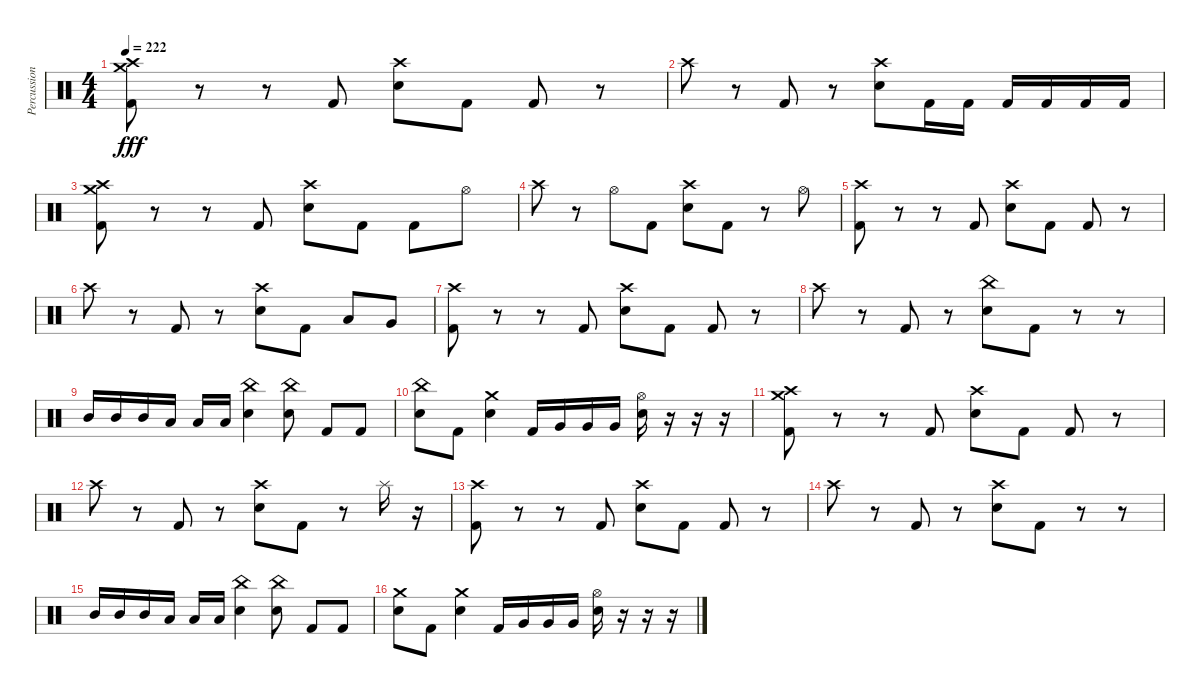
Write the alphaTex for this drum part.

\track ("Percussion" "Percussion") {instrument percussion}
\staff {score}
\articulation defaults
\ts (4 4)
\tempo 222
\clef neutral
\ks c
("Kick (hit) 2" "Crash medium (hit)" "Crash high (hit)").8{dy fff} r.8 r.8 "Kick (hit) 2".8 ("Electric Snare (hit)" "Crash high (hit)").8 "Kick (hit) 2".8 "Kick (hit) 2".8 r.8 |
"Crash high (hit)".8 r.8 "Kick (hit) 2".8 r.8 ("Electric Snare (hit)" "Crash high (hit)").8 "Kick (hit) 2".16 "Kick (hit) 2".16 "Kick (hit) 2".16 "Kick (hit) 2".16 "Kick (hit) 2".16 "Kick (hit) 2".16 |
("Kick (hit) 2" "Crash medium (hit)" "Crash high (hit)").8 r.8 r.8 "Kick (hit) 2".8 ("Electric Snare (hit)" "Crash high (hit)").8 "Kick (hit) 2".8 "Kick (hit) 2".8 "Hi-Hat (open)".8 |
"Crash high (hit)".8 r.8 "Hi-Hat (open)".8 "Kick (hit) 2".8 ("Electric Snare (hit)" "Crash high (hit)").8 "Kick (hit) 2".8 r.8 "Hi-Hat (open)".8 |
("Kick (hit) 2" "Crash high (hit)").8 r.8 r.8 "Kick (hit) 2".8 ("Electric Snare (hit)" "Crash high (hit)").8 "Kick (hit) 2".8 "Kick (hit) 2".8 r.8 |
"Crash high (hit)".8 r.8 "Kick (hit) 2".8 r.8 ("Electric Snare (hit)" "Crash high (hit)").8 "Kick (hit) 2".8 "Low Floor Tom (hit)".8 "Very Low Tom (hit)".8 |
("Kick (hit) 2" "Crash high (hit)").8 r.8 r.8 "Kick (hit) 2".8 ("Electric Snare (hit)" "Crash high (hit)").8 "Kick (hit) 2".8 "Kick (hit) 2".8 r.8 |
"Crash high (hit)".8 r.8 "Kick (hit) 2".8 r.8 ("Electric Snare (hit)" "China (hit)").8 "Kick (hit) 2".8 r.8 r.8 |
"Mid Tom (hit)".16 "Mid Tom (hit)".16 "Mid Tom (hit)".16 "Low Tom (hit)".16 "Low Tom (hit)".16 "Low Tom (hit)".16 ("Electric Snare (hit)" "China (hit)").4 ("Electric Snare (hit)" "China (hit)").8 "Kick (hit) 2".8 "Kick (hit) 2".8 |
("Electric Snare (hit)" "China (hit)").8 "Kick (hit) 2".8 ("Electric Snare (hit)" "Crash medium (hit)").4 "Kick (hit) 2".16 "Very Low Tom (hit)".16 "Very Low Tom (hit)".16 "Very Low Tom (hit)".16 ("Electric Snare (hit)" "Hi-Hat (open)").16 r.16 r.16 r.16 |
("Kick (hit) 2" "Crash high (hit)" "Crash medium (hit)").8 r.8 r.8 "Kick (hit) 2".8 ("Electric Snare (hit)" "Crash high (hit)").8 "Kick (hit) 2".8 "Kick (hit) 2".8 r.8 |
"Crash high (hit)".8 r.8 "Kick (hit) 2".8 r.8 ("Electric Snare (hit)" "Crash high (hit)").8 "Kick (hit) 2".8 r.8 "Splash (hit)".16 r.16 |
("Kick (hit) 2" "Crash high (hit)").8 r.8 r.8 "Kick (hit) 2".8 ("Electric Snare (hit)" "Crash high (hit)").8 "Kick (hit) 2".8 "Kick (hit) 2".8 r.8 |
"Crash high (hit)".8 r.8 "Kick (hit) 2".8 r.8 ("Electric Snare (hit)" "Crash high (hit)").8 "Kick (hit) 2".8 r.8 r.8 |
"Mid Tom (hit)".16 "Mid Tom (hit)".16 "Mid Tom (hit)".16 "Low Tom (hit)".16 "Low Tom (hit)".16 "Low Tom (hit)".16 ("Electric Snare (hit)" "China (hit)").4 ("Electric Snare (hit)" "China (hit)").8 "Kick (hit) 2".8 "Kick (hit) 2".8 |
("Electric Snare (hit)" "Crash medium (hit)").8 "Kick (hit) 2".8 ("Electric Snare (hit)" "Crash medium (hit)").4 "Kick (hit) 2".16 "Very Low Tom (hit)".16 "Very Low Tom (hit)".16 "Very Low Tom (hit)".16 ("Electric Snare (hit)" "Hi-Hat (open)").16 r.16 r.16 r.16
